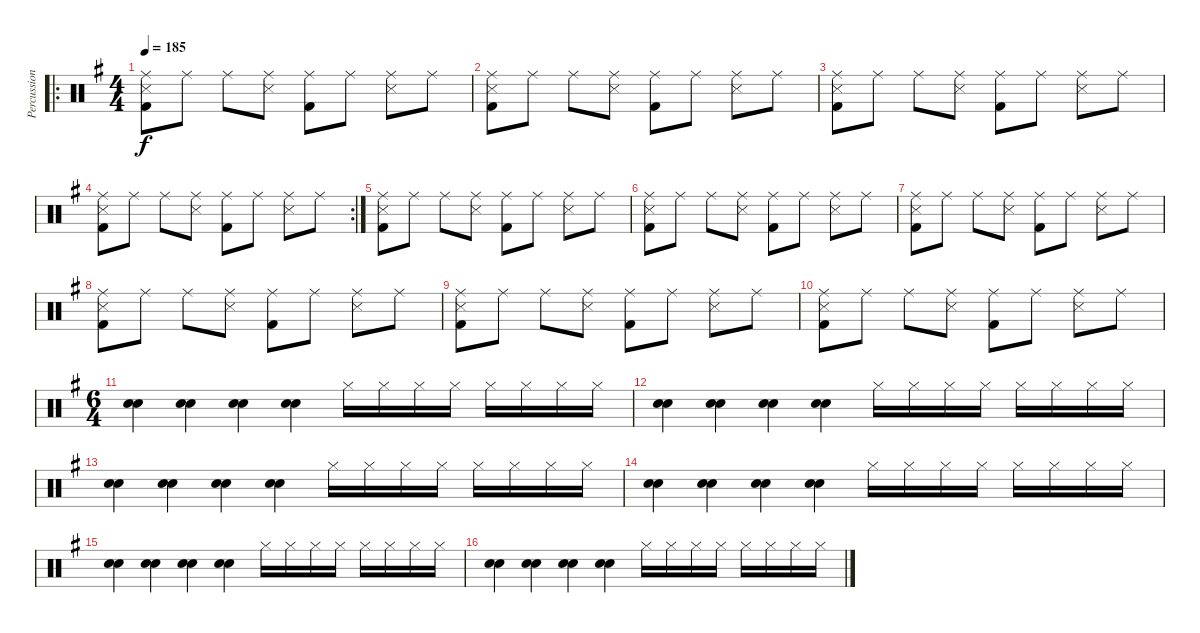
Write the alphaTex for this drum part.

\track ("Percussion" "Percussion") {instrument percussion}
\staff {score}
\articulation defaults
\ro
\ts (4 4)
\tempo 185
\clef neutral
\ks g
("Ride (middle)" "Snare (side stick) 3" "Kick (hit) 2").8{dy f} "Ride (middle)".8 "Ride (middle)".8 ("Ride (middle)" "Snare (side stick) 3").8 ("Ride (middle)" "Kick (hit) 2").8 "Ride (middle)".8 ("Ride (middle)" "Snare (side stick) 3").8 "Ride (middle)".8 |
("Ride (middle)" "Snare (side stick) 3" "Kick (hit) 2").8 "Ride (middle)".8 "Ride (middle)".8 ("Ride (middle)" "Snare (side stick) 3").8 ("Ride (middle)" "Kick (hit) 2").8 "Ride (middle)".8 ("Ride (middle)" "Snare (side stick) 3").8 "Ride (middle)".8 |
("Ride (middle)" "Snare (side stick) 3" "Kick (hit) 2").8 "Ride (middle)".8 "Ride (middle)".8 ("Ride (middle)" "Snare (side stick) 3").8 ("Ride (middle)" "Kick (hit) 2").8 "Ride (middle)".8 ("Ride (middle)" "Snare (side stick) 3").8 "Ride (middle)".8 |
\rc 2
("Ride (middle)" "Snare (side stick) 3" "Kick (hit) 2").8 "Ride (middle)".8 "Ride (middle)".8 ("Ride (middle)" "Snare (side stick) 3").8 ("Ride (middle)" "Kick (hit) 2").8 "Ride (middle)".8 ("Ride (middle)" "Snare (side stick) 3").8 "Ride (middle)".8 |
("Ride (middle)" "Snare (side stick) 3" "Kick (hit) 2").8 "Ride (middle)".8 "Ride (middle)".8 ("Ride (middle)" "Snare (side stick) 3").8 ("Ride (middle)" "Kick (hit) 2").8 "Ride (middle)".8 ("Ride (middle)" "Snare (side stick) 3").8 "Ride (middle)".8 |
("Ride (middle)" "Snare (side stick) 3" "Kick (hit) 2").8 "Ride (middle)".8 "Ride (middle)".8 ("Ride (middle)" "Snare (side stick) 3").8 ("Ride (middle)" "Kick (hit) 2").8 "Ride (middle)".8 ("Ride (middle)" "Snare (side stick) 3").8 "Ride (middle)".8 |
("Ride (middle)" "Snare (side stick) 3" "Kick (hit) 2").8 "Ride (middle)".8 "Ride (middle)".8 ("Ride (middle)" "Snare (side stick) 3").8 ("Ride (middle)" "Kick (hit) 2").8 "Ride (middle)".8 ("Ride (middle)" "Snare (side stick) 3").8 "Ride (middle)".8 |
("Ride (middle)" "Snare (side stick) 3" "Kick (hit) 2").8 "Ride (middle)".8 "Ride (middle)".8 ("Ride (middle)" "Snare (side stick) 3").8 ("Ride (middle)" "Kick (hit) 2").8 "Ride (middle)".8 ("Ride (middle)" "Snare (side stick) 3").8 "Ride (middle)".8 |
("Ride (middle)" "Snare (side stick) 3" "Kick (hit) 2").8 "Ride (middle)".8 "Ride (middle)".8 ("Ride (middle)" "Snare (side stick) 3").8 ("Ride (middle)" "Kick (hit) 2").8 "Ride (middle)".8 ("Ride (middle)" "Snare (side stick) 3").8 "Ride (middle)".8 |
("Ride (middle)" "Snare (side stick) 3" "Kick (hit) 2").8 "Ride (middle)".8 "Ride (middle)".8 ("Ride (middle)" "Snare (side stick) 3").8 ("Ride (middle)" "Kick (hit) 2").8 "Ride (middle)".8 ("Ride (middle)" "Snare (side stick) 3").8 "Ride (middle)".8 |
\ts (6 4)
("Electric Snare (hit)" "Snare (hit) 2").4 ("Electric Snare (hit)" "Snare (hit) 2").4 ("Electric Snare (hit)" "Snare (hit) 2").4 ("Electric Snare (hit)" "Snare (hit) 2").4 "Hi-Hat (closed)".16 "Hi-Hat (closed)".16 "Hi-Hat (closed)".16 "Hi-Hat (closed)".16 "Hi-Hat (closed)".16 "Hi-Hat (closed)".16 "Hi-Hat (closed)".16 "Hi-Hat (closed)".16 |
("Electric Snare (hit)" "Snare (hit) 2").4 ("Electric Snare (hit)" "Snare (hit) 2").4 ("Electric Snare (hit)" "Snare (hit) 2").4 ("Electric Snare (hit)" "Snare (hit) 2").4 "Hi-Hat (closed)".16 "Hi-Hat (closed)".16 "Hi-Hat (closed)".16 "Hi-Hat (closed)".16 "Hi-Hat (closed)".16 "Hi-Hat (closed)".16 "Hi-Hat (closed)".16 "Hi-Hat (closed)".16 |
("Electric Snare (hit)" "Snare (hit) 2").4 ("Electric Snare (hit)" "Snare (hit) 2").4 ("Electric Snare (hit)" "Snare (hit) 2").4 ("Electric Snare (hit)" "Snare (hit) 2").4 "Hi-Hat (closed)".16 "Hi-Hat (closed)".16 "Hi-Hat (closed)".16 "Hi-Hat (closed)".16 "Hi-Hat (closed)".16 "Hi-Hat (closed)".16 "Hi-Hat (closed)".16 "Hi-Hat (closed)".16 |
("Electric Snare (hit)" "Snare (hit) 2").4 ("Electric Snare (hit)" "Snare (hit) 2").4 ("Electric Snare (hit)" "Snare (hit) 2").4 ("Electric Snare (hit)" "Snare (hit) 2").4 "Hi-Hat (closed)".16 "Hi-Hat (closed)".16 "Hi-Hat (closed)".16 "Hi-Hat (closed)".16 "Hi-Hat (closed)".16 "Hi-Hat (closed)".16 "Hi-Hat (closed)".16 "Hi-Hat (closed)".16 |
("Electric Snare (hit)" "Snare (hit) 2").4 ("Electric Snare (hit)" "Snare (hit) 2").4 ("Electric Snare (hit)" "Snare (hit) 2").4 ("Electric Snare (hit)" "Snare (hit) 2").4 "Hi-Hat (closed)".16 "Hi-Hat (closed)".16 "Hi-Hat (closed)".16 "Hi-Hat (closed)".16 "Hi-Hat (closed)".16 "Hi-Hat (closed)".16 "Hi-Hat (closed)".16 "Hi-Hat (closed)".16 |
("Electric Snare (hit)" "Snare (hit) 2").4 ("Electric Snare (hit)" "Snare (hit) 2").4 ("Electric Snare (hit)" "Snare (hit) 2").4 ("Electric Snare (hit)" "Snare (hit) 2").4 "Hi-Hat (closed)".16 "Hi-Hat (closed)".16 "Hi-Hat (closed)".16 "Hi-Hat (closed)".16 "Hi-Hat (closed)".16 "Hi-Hat (closed)".16 "Hi-Hat (closed)".16 "Hi-Hat (closed)".16
